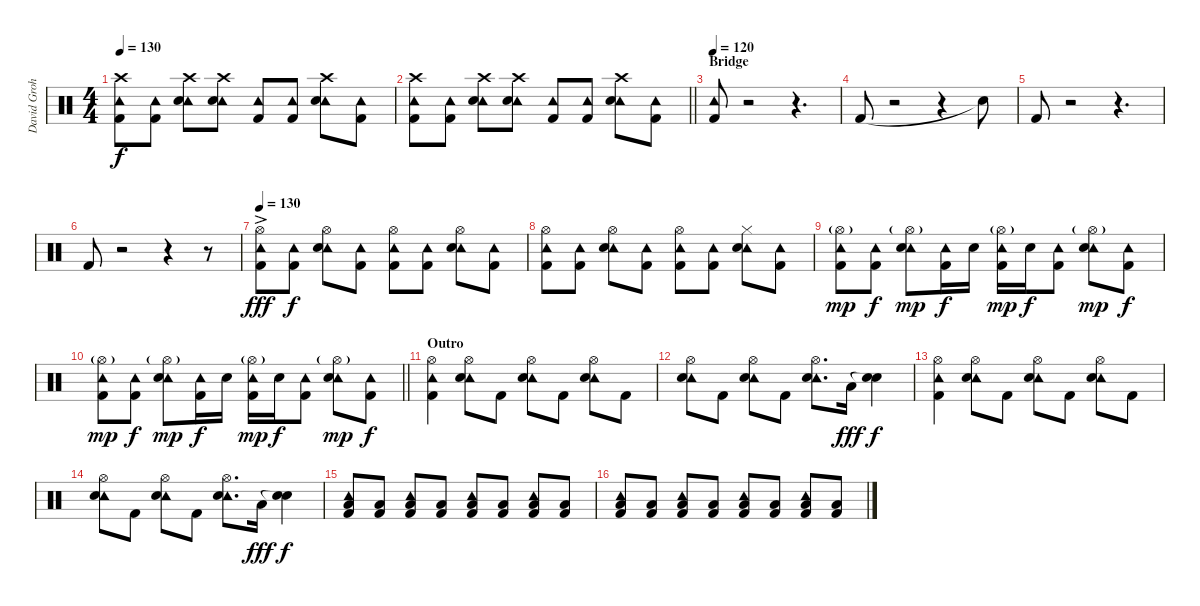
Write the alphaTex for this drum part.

\track ("David Grohl" "David Groh") {instrument percussion}
\staff {score}
\articulation defaults
\ts (4 4)
\tempo 130
\clef neutral
\ks c
("Crash high (hit)" "Tambourine (hit)" "Kick (hit) 2").8{dy f} ("Tambourine (hit)" "Kick (hit) 2").8 ("Crash high (hit)" "Tambourine (hit)" "Snare (hit) 2").8 ("Crash high (hit)" "Tambourine (hit)" "Snare (hit) 2").8 ("Tambourine (hit)" "Kick (hit) 2").8 ("Tambourine (hit)" "Kick (hit) 2").8 ("Crash high (hit)" "Tambourine (hit)" "Snare (hit) 2").8 ("Tambourine (hit)" "Kick (hit) 2").8 |
\barLineRight lightlight
("Crash high (hit)" "Tambourine (hit)" "Kick (hit) 2").8 ("Tambourine (hit)" "Kick (hit) 2").8 ("Crash high (hit)" "Tambourine (hit)" "Snare (hit) 2").8 ("Crash high (hit)" "Tambourine (hit)" "Snare (hit) 2").8 ("Tambourine (hit)" "Kick (hit) 2").8 ("Tambourine (hit)" "Kick (hit) 2").8 ("Crash high (hit)" "Tambourine (hit)" "Snare (hit) 2").8 ("Tambourine (hit)" "Kick (hit) 2").8 |
\section ("" "Bridge")
\tempo 120
("Tambourine (hit)" "Kick (hit) 2").8 r.2 r.4{d} |
"Kick (hit) 2".8 r.2 r.4 "Snare (hit)"{t}.8 |
"Kick (hit) 2".8 r.2 r.4{d} |
"Kick (hit) 2".8 r.2 r.4 r.8 |
\tempo 130
("Tambourine (hit)"{ac} "Hi-Hat (open)"{ac} "Kick (hit) 2"{ac}).8{dy fff} ("Tambourine (hit)" "Kick (hit) 2").8{dy f} ("Tambourine (hit)" "Hi-Hat (open)" "Snare (hit) 2").8 ("Tambourine (hit)" "Kick (hit) 2").8 ("Tambourine (hit)" "Hi-Hat (open)" "Kick (hit) 2").8 ("Tambourine (hit)" "Kick (hit) 2").8 ("Tambourine (hit)" "Hi-Hat (open)" "Snare (hit) 2").8 ("Tambourine (hit)" "Kick (hit) 2").8 |
("Tambourine (hit)" "Hi-Hat (open)" "Kick (hit) 2").8 ("Tambourine (hit)" "Kick (hit) 2").8 ("Tambourine (hit)" "Hi-Hat (open)" "Snare (hit) 2").8 ("Tambourine (hit)" "Kick (hit) 2").8 ("Tambourine (hit)" "Hi-Hat (open)" "Kick (hit) 2").8 ("Tambourine (hit)" "Kick (hit) 2").8 ("Tambourine (hit)" "Hi-Hat (closed)" "Snare (hit) 2").8 ("Tambourine (hit)" "Kick (hit) 2").8 |
("Tambourine (hit)" "Hi-Hat (open)"{g} "Kick (hit) 2").8{dy mp} ("Tambourine (hit)" "Kick (hit) 2").8{dy f} ("Tambourine (hit)" "Hi-Hat (open)"{g} "Snare (hit) 2").8{dy mp} ("Tambourine (hit)" "Kick (hit) 2").16{dy f} "Snare (hit) 2".16 ("Tambourine (hit)" "Hi-Hat (open)"{g} "Kick (hit) 2").16{dy mp} "Snare (hit) 2".16{dy f} ("Tambourine (hit)" "Kick (hit) 2").8 ("Tambourine (hit)" "Hi-Hat (open)"{g} "Snare (hit) 2").8{dy mp} ("Tambourine (hit)" "Kick (hit) 2").8{dy f} |
\barLineRight lightlight
("Tambourine (hit)" "Hi-Hat (open)"{g} "Kick (hit) 2").8{dy mp} ("Tambourine (hit)" "Kick (hit) 2").8{dy f} ("Tambourine (hit)" "Hi-Hat (open)"{g} "Snare (hit) 2").8{dy mp} ("Tambourine (hit)" "Kick (hit) 2").16{dy f} "Snare (hit) 2".16 ("Tambourine (hit)" "Hi-Hat (open)"{g} "Kick (hit) 2").16{dy mp} "Snare (hit) 2".16{dy f} ("Tambourine (hit)" "Kick (hit) 2").8 ("Tambourine (hit)" "Hi-Hat (open)"{g} "Snare (hit) 2").8{dy mp} ("Tambourine (hit)" "Kick (hit) 2").8{dy f} |
\section ("" "Outro")
("Tambourine (hit)" "Hi-Hat (open)" "Kick (hit) 2").4 ("Tambourine (hit)" "Hi-Hat (open)" "Snare (hit) 2").8 "Kick (hit) 2".8 ("Tambourine (hit)" "Hi-Hat (open)" "Snare (hit) 2").8 "Kick (hit) 2".8 ("Tambourine (hit)" "Hi-Hat (open)" "Snare (hit) 2").8 "Kick (hit) 2".8 |
("Tambourine (hit)" "Hi-Hat (open)" "Snare (hit) 2").8 "Kick (hit) 2".8 ("Tambourine (hit)" "Hi-Hat (open)" "Snare (hit) 2").8 "Kick (hit) 2".8 ("Tambourine (hit)" "Hi-Hat (open)" "Snare (hit) 2").8{d} "Low Floor Tom (hit)".16{dy fff} ("Snare (hit)"{t} "Snare (hit) 2").4{dy f} |
("Tambourine (hit)" "Hi-Hat (open)" "Kick (hit) 2").4 ("Tambourine (hit)" "Hi-Hat (open)" "Snare (hit) 2").8 "Kick (hit) 2".8 ("Tambourine (hit)" "Hi-Hat (open)" "Snare (hit) 2").8 "Kick (hit) 2".8 ("Tambourine (hit)" "Hi-Hat (open)" "Snare (hit) 2").8 "Kick (hit) 2".8 |
("Tambourine (hit)" "Hi-Hat (open)" "Snare (hit) 2").8 "Kick (hit) 2".8 ("Tambourine (hit)" "Hi-Hat (open)" "Snare (hit) 2").8 "Kick (hit) 2".8 ("Tambourine (hit)" "Hi-Hat (open)" "Snare (hit) 2").8{d} "Low Floor Tom (hit)".16{dy fff} ("Snare (hit)"{t} "Snare (hit) 2").4{dy f} |
("Tambourine (hit)" "Low Floor Tom (hit)" "Kick (hit) 2").8 ("Low Floor Tom (hit)" "Kick (hit) 2").8 ("Tambourine (hit)" "Low Floor Tom (hit)" "Kick (hit) 2").8 ("Low Floor Tom (hit)" "Kick (hit) 2").8 ("Tambourine (hit)" "Low Floor Tom (hit)" "Kick (hit) 2").8 ("Low Floor Tom (hit)" "Kick (hit) 2").8 ("Tambourine (hit)" "Low Floor Tom (hit)" "Kick (hit) 2").8 ("Low Floor Tom (hit)" "Kick (hit) 2").8 |
("Tambourine (hit)" "Low Floor Tom (hit)" "Kick (hit) 2").8 ("Low Floor Tom (hit)" "Kick (hit) 2").8 ("Tambourine (hit)" "Low Floor Tom (hit)" "Kick (hit) 2").8 ("Low Floor Tom (hit)" "Kick (hit) 2").8 ("Tambourine (hit)" "Low Floor Tom (hit)" "Kick (hit) 2").8 ("Low Floor Tom (hit)" "Kick (hit) 2").8 ("Tambourine (hit)" "Low Floor Tom (hit)" "Kick (hit) 2").8 ("Low Floor Tom (hit)" "Kick (hit) 2").8
